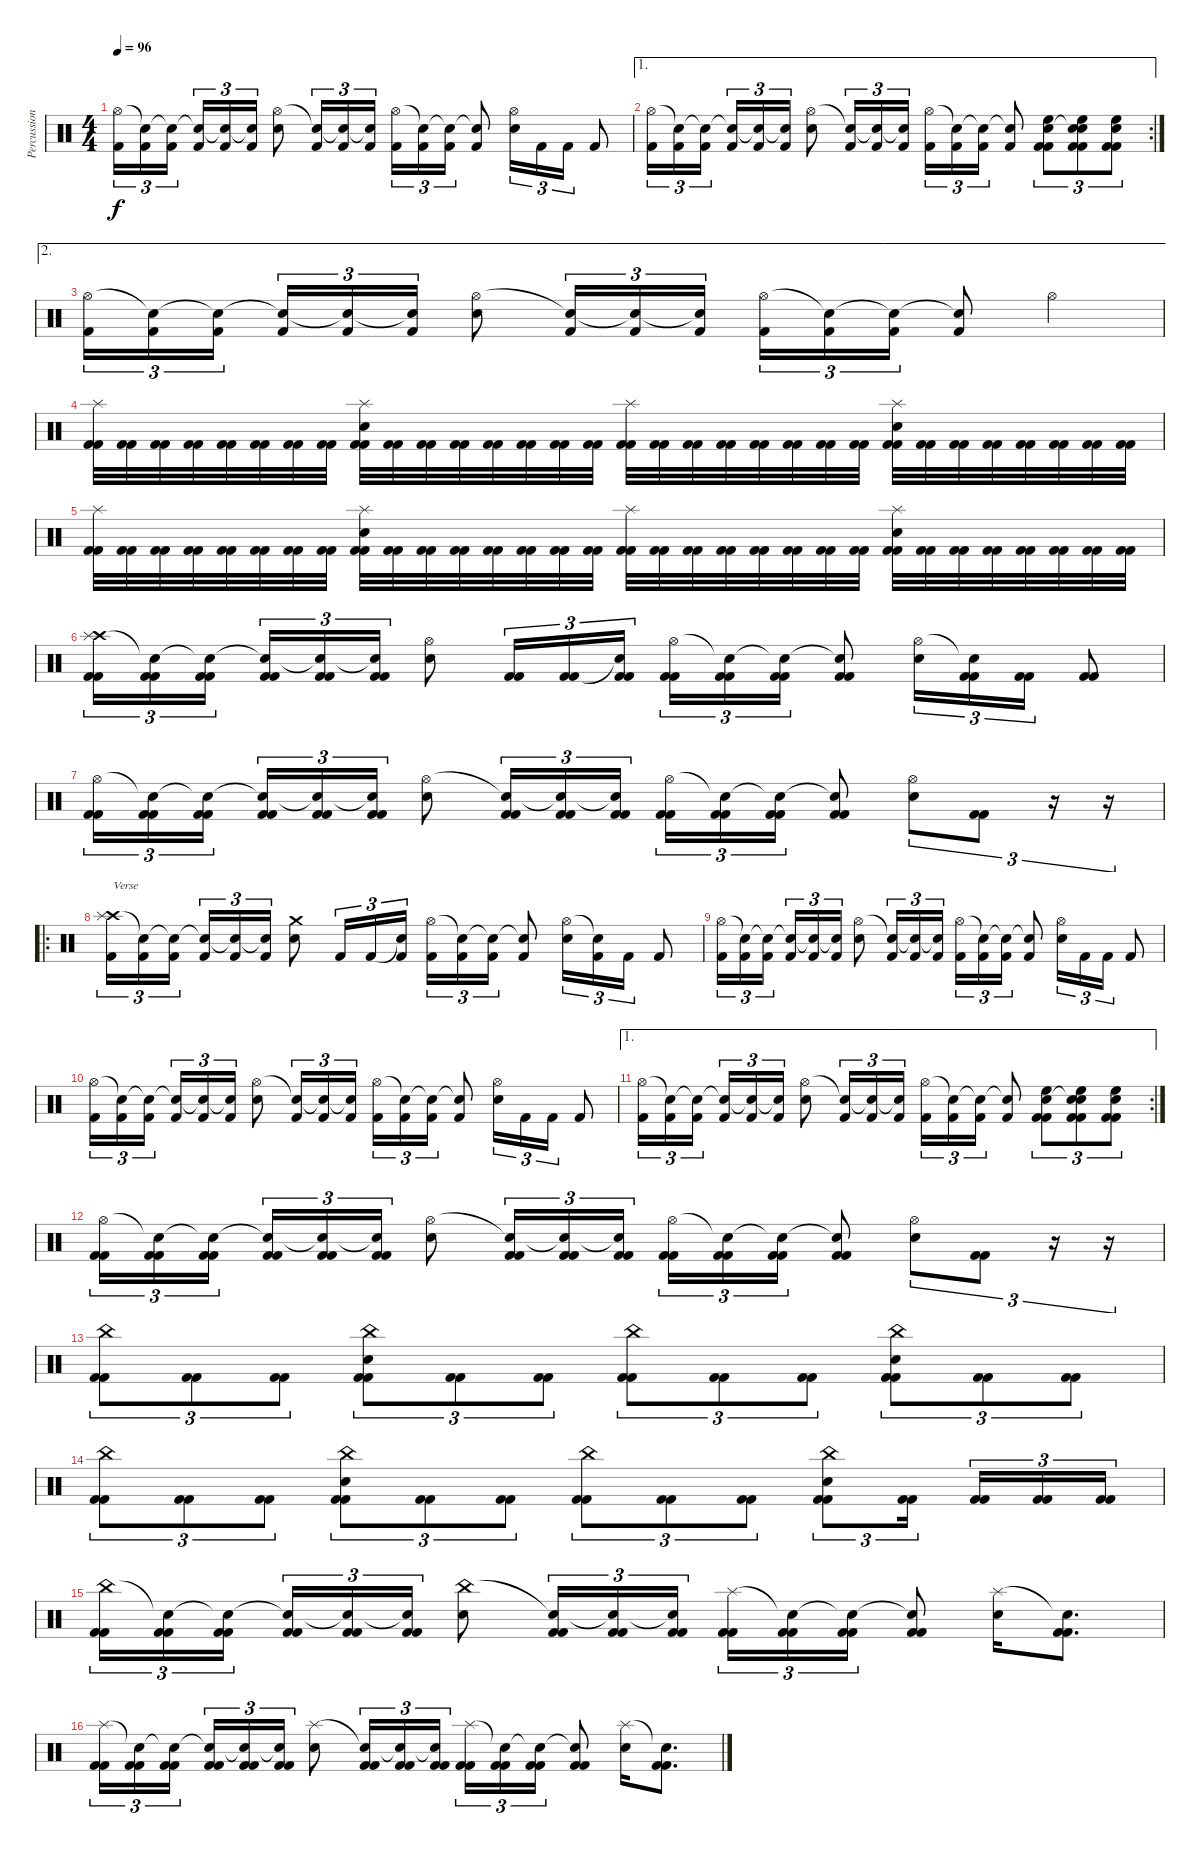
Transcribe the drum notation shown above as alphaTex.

\track ("Percussion" "Percussion") {instrument percussion}
\staff {score}
\articulation defaults
\ts (4 4)
\tempo 96
\clef neutral
\ks c
("Hi-Hat (open)" "Kick (hit) 2").16{tu (3 2) dy f} ("Snare (hit)"{t} "Kick (hit) 2").16{tu (3 2)} ("Snare (hit)"{t} "Kick (hit) 2").16{tu (3 2) beam splitsecondary} ("Snare (hit)"{t} "Kick (hit) 2").16{tu (3 2)} ("Snare (hit)"{t} "Kick (hit) 2").16{tu (3 2)} ("Snare (hit)"{t} "Kick (hit) 2").16{tu (3 2)} ("Hi-Hat (open)" "Snare (hit) 2").8 ("Snare (hit)"{t} "Kick (hit) 2").16{tu (3 2)} ("Snare (hit)"{t} "Kick (hit) 2").16{tu (3 2)} ("Snare (hit)"{t} "Kick (hit) 2").16{tu (3 2)} ("Hi-Hat (open)" "Kick (hit) 2").16{tu (3 2)} ("Snare (hit)"{t} "Kick (hit) 2").16{tu (3 2)} ("Snare (hit)"{t} "Kick (hit) 2").16{tu (3 2)} ("Snare (hit)"{t} "Kick (hit) 2").8 ("Hi-Hat (open)" "Snare (hit) 2").16{tu (3 2)} "Kick (hit) 2".16{tu (3 2)} "Kick (hit) 2".16{tu (3 2)} "Kick (hit) 2".8 |
\ae 1
\rc 2
("Hi-Hat (open)" "Kick (hit) 2").16{tu (3 2)} ("Snare (hit)"{t} "Kick (hit) 2").16{tu (3 2)} ("Snare (hit)"{t} "Kick (hit) 2").16{tu (3 2) beam splitsecondary} ("Snare (hit)"{t} "Kick (hit) 2").16{tu (3 2)} ("Snare (hit)"{t} "Kick (hit) 2").16{tu (3 2)} ("Snare (hit)"{t} "Kick (hit) 2").16{tu (3 2)} ("Hi-Hat (open)" "Snare (hit) 2").8 ("Snare (hit)"{t} "Kick (hit) 2").16{tu (3 2)} ("Snare (hit)"{t} "Kick (hit) 2").16{tu (3 2)} ("Snare (hit)"{t} "Kick (hit) 2").16{tu (3 2)} ("Hi-Hat (open)" "Kick (hit) 2").16{tu (3 2)} ("Snare (hit)"{t} "Kick (hit) 2").16{tu (3 2)} ("Snare (hit)"{t} "Kick (hit) 2").16{tu (3 2)} ("Snare (hit)"{t} "Kick (hit) 2").8 ("Snare (hit) 2" "High Floor Tom (hit)" "Kick (hit) 2" "Kick (hit) 2").8{tu (3 2)} ("Snare (hit)"{t} "Snare (hit) 2" "High Floor Tom (hit)" "Kick (hit) 2" "Kick (hit) 2").8{tu (3 2)} ("Snare (hit) 2" "High Floor Tom (hit)" "Kick (hit) 2" "Kick (hit) 2").8{tu (3 2)} |
\ae 2
("Hi-Hat (open)" "Kick (hit) 2").16{tu (3 2)} ("Snare (hit)"{t} "Kick (hit) 2").16{tu (3 2)} ("Snare (hit)"{t} "Kick (hit) 2").16{tu (3 2) beam splitsecondary} ("Snare (hit)"{t} "Kick (hit) 2").16{tu (3 2)} ("Snare (hit)"{t} "Kick (hit) 2").16{tu (3 2)} ("Snare (hit)"{t} "Kick (hit) 2").16{tu (3 2)} ("Hi-Hat (open)" "Snare (hit) 2").8 ("Snare (hit)"{t} "Kick (hit) 2").16{tu (3 2)} ("Snare (hit)"{t} "Kick (hit) 2").16{tu (3 2)} ("Snare (hit)"{t} "Kick (hit) 2").16{tu (3 2)} ("Hi-Hat (open)" "Kick (hit) 2").16{tu (3 2)} ("Snare (hit)"{t} "Kick (hit) 2").16{tu (3 2)} ("Snare (hit)"{t} "Kick (hit) 2").16{tu (3 2)} ("Snare (hit)"{t} "Kick (hit) 2").8 "Hi-Hat (open)".4 |
("Splash (hit)" "Kick (hit) 2" "Kick (hit) 2").32 ("Kick (hit) 2" "Kick (hit) 2").32 ("Kick (hit) 2" "Kick (hit) 2").32 ("Kick (hit) 2" "Kick (hit) 2").32 ("Kick (hit) 2" "Kick (hit) 2").32 ("Kick (hit) 2" "Kick (hit) 2").32 ("Kick (hit) 2" "Kick (hit) 2").32 ("Kick (hit) 2" "Kick (hit) 2").32 ("Splash (hit)" "Snare (hit) 2" "Kick (hit) 2" "Kick (hit) 2").32 ("Kick (hit) 2" "Kick (hit) 2").32 ("Kick (hit) 2" "Kick (hit) 2").32 ("Kick (hit) 2" "Kick (hit) 2").32 ("Kick (hit) 2" "Kick (hit) 2").32 ("Kick (hit) 2" "Kick (hit) 2").32 ("Kick (hit) 2" "Kick (hit) 2").32 ("Kick (hit) 2" "Kick (hit) 2").32 ("Splash (hit)" "Kick (hit) 2" "Kick (hit) 2").32 ("Kick (hit) 2" "Kick (hit) 2").32 ("Kick (hit) 2" "Kick (hit) 2").32 ("Kick (hit) 2" "Kick (hit) 2").32 ("Kick (hit) 2" "Kick (hit) 2").32 ("Kick (hit) 2" "Kick (hit) 2").32 ("Kick (hit) 2" "Kick (hit) 2").32 ("Kick (hit) 2" "Kick (hit) 2").32 ("Splash (hit)" "Snare (hit) 2" "Kick (hit) 2" "Kick (hit) 2").32 ("Kick (hit) 2" "Kick (hit) 2").32 ("Kick (hit) 2" "Kick (hit) 2").32 ("Kick (hit) 2" "Kick (hit) 2").32 ("Kick (hit) 2" "Kick (hit) 2").32 ("Kick (hit) 2" "Kick (hit) 2").32 ("Kick (hit) 2" "Kick (hit) 2").32 ("Kick (hit) 2" "Kick (hit) 2").32 |
("Splash (hit)" "Kick (hit) 2" "Kick (hit) 2").32 ("Kick (hit) 2" "Kick (hit) 2").32 ("Kick (hit) 2" "Kick (hit) 2").32 ("Kick (hit) 2" "Kick (hit) 2").32 ("Kick (hit) 2" "Kick (hit) 2").32 ("Kick (hit) 2" "Kick (hit) 2").32 ("Kick (hit) 2" "Kick (hit) 2").32 ("Kick (hit) 2" "Kick (hit) 2").32 ("Splash (hit)" "Snare (hit) 2" "Kick (hit) 2" "Kick (hit) 2").32 ("Kick (hit) 2" "Kick (hit) 2").32 ("Kick (hit) 2" "Kick (hit) 2").32 ("Kick (hit) 2" "Kick (hit) 2").32 ("Kick (hit) 2" "Kick (hit) 2").32 ("Kick (hit) 2" "Kick (hit) 2").32 ("Kick (hit) 2" "Kick (hit) 2").32 ("Kick (hit) 2" "Kick (hit) 2").32 ("Splash (hit)" "Kick (hit) 2" "Kick (hit) 2").32 ("Kick (hit) 2" "Kick (hit) 2").32 ("Kick (hit) 2" "Kick (hit) 2").32 ("Kick (hit) 2" "Kick (hit) 2").32 ("Kick (hit) 2" "Kick (hit) 2").32 ("Kick (hit) 2" "Kick (hit) 2").32 ("Kick (hit) 2" "Kick (hit) 2").32 ("Kick (hit) 2" "Kick (hit) 2").32 ("Splash (hit)" "Snare (hit) 2" "Kick (hit) 2" "Kick (hit) 2").32 ("Kick (hit) 2" "Kick (hit) 2").32 ("Kick (hit) 2" "Kick (hit) 2").32 ("Kick (hit) 2" "Kick (hit) 2").32 ("Kick (hit) 2" "Kick (hit) 2").32 ("Kick (hit) 2" "Kick (hit) 2").32 ("Kick (hit) 2" "Kick (hit) 2").32 ("Kick (hit) 2" "Kick (hit) 2").32 |
("Crash high (hit)" "Splash (hit)" "Kick (hit) 2" "Kick (hit) 2").16{tu (3 2)} ("Snare (hit)"{t} "Kick (hit) 2" "Kick (hit) 2").16{tu (3 2)} ("Snare (hit)"{t} "Kick (hit) 2" "Kick (hit) 2").16{tu (3 2) beam splitsecondary} ("Snare (hit)"{t} "Kick (hit) 2" "Kick (hit) 2").16{tu (3 2)} ("Snare (hit)"{t} "Kick (hit) 2" "Kick (hit) 2").16{tu (3 2)} ("Snare (hit)"{t} "Kick (hit) 2" "Kick (hit) 2").16{tu (3 2)} ("Hi-Hat (open)" "Snare (hit) 2").8 ("Kick (hit) 2" "Kick (hit) 2").16{tu (3 2)} ("Kick (hit) 2" "Kick (hit) 2").16{tu (3 2)} ("Snare (hit)"{t} "Kick (hit) 2" "Kick (hit) 2").16{tu (3 2)} ("Hi-Hat (open)" "Kick (hit) 2" "Kick (hit) 2").16{tu (3 2)} ("Snare (hit)"{t} "Kick (hit) 2" "Kick (hit) 2").16{tu (3 2)} ("Snare (hit)"{t} "Kick (hit) 2" "Kick (hit) 2").16{tu (3 2)} ("Snare (hit)"{t} "Kick (hit) 2" "Kick (hit) 2").8 ("Hi-Hat (open)" "Snare (hit) 2").16{tu (3 2)} ("Snare (hit)"{t} "Kick (hit) 2" "Kick (hit) 2").16{tu (3 2)} ("Kick (hit) 2" "Kick (hit) 2").16{tu (3 2)} ("Kick (hit) 2" "Kick (hit) 2").8 |
("Hi-Hat (open)" "Kick (hit) 2" "Kick (hit) 2").16{tu (3 2)} ("Snare (hit)"{t} "Kick (hit) 2" "Kick (hit) 2").16{tu (3 2)} ("Snare (hit)"{t} "Kick (hit) 2" "Kick (hit) 2").16{tu (3 2) beam splitsecondary} ("Snare (hit)"{t} "Kick (hit) 2" "Kick (hit) 2").16{tu (3 2)} ("Snare (hit)"{t} "Kick (hit) 2" "Kick (hit) 2").16{tu (3 2)} ("Snare (hit)"{t} "Kick (hit) 2" "Kick (hit) 2").16{tu (3 2)} ("Hi-Hat (open)" "Snare (hit) 2").8 ("Snare (hit)"{t} "Kick (hit) 2" "Kick (hit) 2").16{tu (3 2)} ("Snare (hit)"{t} "Kick (hit) 2" "Kick (hit) 2").16{tu (3 2)} ("Snare (hit)"{t} "Kick (hit) 2" "Kick (hit) 2").16{tu (3 2)} ("Hi-Hat (open)" "Kick (hit) 2" "Kick (hit) 2").16{tu (3 2)} ("Snare (hit)"{t} "Kick (hit) 2" "Kick (hit) 2").16{tu (3 2)} ("Snare (hit)"{t} "Kick (hit) 2" "Kick (hit) 2").16{tu (3 2)} ("Snare (hit)"{t} "Kick (hit) 2" "Kick (hit) 2").8 ("Hi-Hat (open)" "Snare (hit) 2").8{tu (3 2)} ("Kick (hit) 2" "Kick (hit) 2").8{tu (3 2)} r.16{tu (3 2)} r.16{tu (3 2)} |
\ro
("Crash high (hit)" "Splash (hit)" "Kick (hit) 2").16{tu (3 2) txt "Verse"} ("Snare (hit)"{t} "Kick (hit) 2").16{tu (3 2)} ("Snare (hit)"{t} "Kick (hit) 2").16{tu (3 2) beam splitsecondary} ("Snare (hit)"{t} "Kick (hit) 2").16{tu (3 2)} ("Snare (hit)"{t} "Kick (hit) 2").16{tu (3 2)} ("Snare (hit)"{t} "Kick (hit) 2").16{tu (3 2)} ("Crash medium (hit)" "Snare (hit) 2").8 "Kick (hit) 2".16{tu (3 2)} "Kick (hit) 2".16{tu (3 2)} ("Snare (hit)"{t} "Kick (hit) 2").16{tu (3 2)} ("Hi-Hat (open)" "Kick (hit) 2").16{tu (3 2)} ("Snare (hit)"{t} "Kick (hit) 2").16{tu (3 2)} ("Snare (hit)"{t} "Kick (hit) 2").16{tu (3 2)} ("Snare (hit)"{t} "Kick (hit) 2").8 ("Hi-Hat (open)" "Snare (hit) 2").16{tu (3 2)} ("Snare (hit)"{t} "Kick (hit) 2").16{tu (3 2)} "Kick (hit) 2".16{tu (3 2)} "Kick (hit) 2".8 |
("Hi-Hat (open)" "Kick (hit) 2").16{tu (3 2)} ("Snare (hit)"{t} "Kick (hit) 2").16{tu (3 2)} ("Snare (hit)"{t} "Kick (hit) 2").16{tu (3 2) beam splitsecondary} ("Snare (hit)"{t} "Kick (hit) 2").16{tu (3 2)} ("Snare (hit)"{t} "Kick (hit) 2").16{tu (3 2)} ("Snare (hit)"{t} "Kick (hit) 2").16{tu (3 2)} ("Hi-Hat (open)" "Snare (hit) 2").8 ("Snare (hit)"{t} "Kick (hit) 2").16{tu (3 2)} ("Snare (hit)"{t} "Kick (hit) 2").16{tu (3 2)} ("Snare (hit)"{t} "Kick (hit) 2").16{tu (3 2)} ("Hi-Hat (open)" "Kick (hit) 2").16{tu (3 2)} ("Snare (hit)"{t} "Kick (hit) 2").16{tu (3 2)} ("Snare (hit)"{t} "Kick (hit) 2").16{tu (3 2)} ("Snare (hit)"{t} "Kick (hit) 2").8 ("Hi-Hat (open)" "Snare (hit) 2").16{tu (3 2)} "Kick (hit) 2".16{tu (3 2)} "Kick (hit) 2".16{tu (3 2)} "Kick (hit) 2".8 |
("Hi-Hat (open)" "Kick (hit) 2").16{tu (3 2)} ("Snare (hit)"{t} "Kick (hit) 2").16{tu (3 2)} ("Snare (hit)"{t} "Kick (hit) 2").16{tu (3 2) beam splitsecondary} ("Snare (hit)"{t} "Kick (hit) 2").16{tu (3 2)} ("Snare (hit)"{t} "Kick (hit) 2").16{tu (3 2)} ("Snare (hit)"{t} "Kick (hit) 2").16{tu (3 2)} ("Hi-Hat (open)" "Snare (hit) 2").8 ("Snare (hit)"{t} "Kick (hit) 2").16{tu (3 2)} ("Snare (hit)"{t} "Kick (hit) 2").16{tu (3 2)} ("Snare (hit)"{t} "Kick (hit) 2").16{tu (3 2)} ("Hi-Hat (open)" "Kick (hit) 2").16{tu (3 2)} ("Snare (hit)"{t} "Kick (hit) 2").16{tu (3 2)} ("Snare (hit)"{t} "Kick (hit) 2").16{tu (3 2)} ("Snare (hit)"{t} "Kick (hit) 2").8 ("Hi-Hat (open)" "Snare (hit) 2").16{tu (3 2)} "Kick (hit) 2".16{tu (3 2)} "Kick (hit) 2".16{tu (3 2)} "Kick (hit) 2".8 |
\ae 1
\rc 2
("Hi-Hat (open)" "Kick (hit) 2").16{tu (3 2)} ("Snare (hit)"{t} "Kick (hit) 2").16{tu (3 2)} ("Snare (hit)"{t} "Kick (hit) 2").16{tu (3 2) beam splitsecondary} ("Snare (hit)"{t} "Kick (hit) 2").16{tu (3 2)} ("Snare (hit)"{t} "Kick (hit) 2").16{tu (3 2)} ("Snare (hit)"{t} "Kick (hit) 2").16{tu (3 2)} ("Hi-Hat (open)" "Snare (hit) 2").8 ("Snare (hit)"{t} "Kick (hit) 2").16{tu (3 2)} ("Snare (hit)"{t} "Kick (hit) 2").16{tu (3 2)} ("Snare (hit)"{t} "Kick (hit) 2").16{tu (3 2)} ("Hi-Hat (open)" "Kick (hit) 2").16{tu (3 2)} ("Snare (hit)"{t} "Kick (hit) 2").16{tu (3 2)} ("Snare (hit)"{t} "Kick (hit) 2").16{tu (3 2)} ("Snare (hit)"{t} "Kick (hit) 2").8 ("Snare (hit) 2" "High Floor Tom (hit)" "Kick (hit) 2" "Kick (hit) 2").8{tu (3 2)} ("Snare (hit)"{t} "Snare (hit) 2" "High Floor Tom (hit)" "Kick (hit) 2" "Kick (hit) 2").8{tu (3 2)} ("Snare (hit) 2" "High Floor Tom (hit)" "Kick (hit) 2" "Kick (hit) 2").8{tu (3 2)} |
("Hi-Hat (open)" "Kick (hit) 2" "Kick (hit) 2").16{tu (3 2)} ("Snare (hit)"{t} "Kick (hit) 2" "Kick (hit) 2").16{tu (3 2)} ("Snare (hit)"{t} "Kick (hit) 2" "Kick (hit) 2").16{tu (3 2) beam splitsecondary} ("Snare (hit)"{t} "Kick (hit) 2" "Kick (hit) 2").16{tu (3 2)} ("Snare (hit)"{t} "Kick (hit) 2" "Kick (hit) 2").16{tu (3 2)} ("Snare (hit)"{t} "Kick (hit) 2" "Kick (hit) 2").16{tu (3 2)} ("Hi-Hat (open)" "Snare (hit) 2").8 ("Snare (hit)"{t} "Kick (hit) 2" "Kick (hit) 2").16{tu (3 2)} ("Snare (hit)"{t} "Kick (hit) 2" "Kick (hit) 2").16{tu (3 2)} ("Snare (hit)"{t} "Kick (hit) 2" "Kick (hit) 2").16{tu (3 2)} ("Hi-Hat (open)" "Kick (hit) 2" "Kick (hit) 2").16{tu (3 2)} ("Snare (hit)"{t} "Kick (hit) 2" "Kick (hit) 2").16{tu (3 2)} ("Snare (hit)"{t} "Kick (hit) 2" "Kick (hit) 2").16{tu (3 2)} ("Snare (hit)"{t} "Kick (hit) 2" "Kick (hit) 2").8 ("Hi-Hat (open)" "Snare (hit) 2").8{tu (3 2)} ("Kick (hit) 2" "Kick (hit) 2").8{tu (3 2)} r.16{tu (3 2)} r.16{tu (3 2)} |
("China (hit)" "Kick (hit) 2" "Kick (hit) 2").8{tu (3 2)} ("Kick (hit) 2" "Kick (hit) 2").8{tu (3 2)} ("Kick (hit) 2" "Kick (hit) 2").8{tu (3 2)} ("China (hit)" "Snare (hit) 2" "Kick (hit) 2" "Kick (hit) 2").8{tu (3 2)} ("Kick (hit) 2" "Kick (hit) 2").8{tu (3 2)} ("Kick (hit) 2" "Kick (hit) 2").8{tu (3 2)} ("China (hit)" "Kick (hit) 2" "Kick (hit) 2").8{tu (3 2)} ("Kick (hit) 2" "Kick (hit) 2").8{tu (3 2)} ("Kick (hit) 2" "Kick (hit) 2").8{tu (3 2)} ("China (hit)" "Snare (hit) 2" "Kick (hit) 2" "Kick (hit) 2").8{tu (3 2)} ("Kick (hit) 2" "Kick (hit) 2").8{tu (3 2)} ("Kick (hit) 2" "Kick (hit) 2").8{tu (3 2)} |
("China (hit)" "Kick (hit) 2" "Kick (hit) 2").8{tu (3 2)} ("Kick (hit) 2" "Kick (hit) 2").8{tu (3 2)} ("Kick (hit) 2" "Kick (hit) 2").8{tu (3 2)} ("China (hit)" "Snare (hit) 2" "Kick (hit) 2" "Kick (hit) 2").8{tu (3 2)} ("Kick (hit) 2" "Kick (hit) 2").8{tu (3 2)} ("Kick (hit) 2" "Kick (hit) 2").8{tu (3 2)} ("China (hit)" "Kick (hit) 2" "Kick (hit) 2").8{tu (3 2)} ("Kick (hit) 2" "Kick (hit) 2").8{tu (3 2)} ("Kick (hit) 2" "Kick (hit) 2").8{tu (3 2)} ("China (hit)" "Snare (hit) 2" "Kick (hit) 2" "Kick (hit) 2").8{tu (3 2)} ("Kick (hit) 2" "Kick (hit) 2").16{tu (3 2) beam splitsecondary} ("Kick (hit) 2" "Kick (hit) 2").16{tu (3 2)} ("Kick (hit) 2" "Kick (hit) 2").16{tu (3 2)} ("Kick (hit) 2" "Kick (hit) 2").16{tu (3 2)} |
("China (hit)" "Kick (hit) 2" "Kick (hit) 2").16{tu (3 2)} ("Snare (hit)"{t} "Kick (hit) 2" "Kick (hit) 2").16{tu (3 2)} ("Snare (hit)"{t} "Kick (hit) 2" "Kick (hit) 2").16{tu (3 2) beam splitsecondary} ("Snare (hit)"{t} "Kick (hit) 2" "Kick (hit) 2").16{tu (3 2)} ("Snare (hit)"{t} "Kick (hit) 2" "Kick (hit) 2").16{tu (3 2)} ("Snare (hit)"{t} "Kick (hit) 2" "Kick (hit) 2").16{tu (3 2)} ("China (hit)" "Snare (hit) 2").8 ("Snare (hit)"{t} "Kick (hit) 2" "Kick (hit) 2").16{tu (3 2)} ("Snare (hit)"{t} "Kick (hit) 2" "Kick (hit) 2").16{tu (3 2)} ("Snare (hit)"{t} "Kick (hit) 2" "Kick (hit) 2").16{tu (3 2)} ("Splash (hit)" "Kick (hit) 2" "Kick (hit) 2").16{tu (3 2)} ("Snare (hit)"{t} "Kick (hit) 2" "Kick (hit) 2").16{tu (3 2)} ("Snare (hit)"{t} "Kick (hit) 2" "Kick (hit) 2").16{tu (3 2)} ("Snare (hit)"{t} "Kick (hit) 2" "Kick (hit) 2").8 ("Splash (hit)" "Snare (hit) 2").16 ("Snare (hit)"{t} "Kick (hit) 2" "Kick (hit) 2").8{d} |
("Splash (hit)" "Kick (hit) 2" "Kick (hit) 2").16{tu (3 2)} ("Snare (hit)"{t} "Kick (hit) 2" "Kick (hit) 2").16{tu (3 2)} ("Snare (hit)"{t} "Kick (hit) 2" "Kick (hit) 2").16{tu (3 2) beam splitsecondary} ("Snare (hit)"{t} "Kick (hit) 2" "Kick (hit) 2").16{tu (3 2)} ("Snare (hit)"{t} "Kick (hit) 2" "Kick (hit) 2").16{tu (3 2)} ("Snare (hit)"{t} "Kick (hit) 2" "Kick (hit) 2").16{tu (3 2)} ("Splash (hit)" "Snare (hit) 2").8 ("Snare (hit)"{t} "Kick (hit) 2" "Kick (hit) 2").16{tu (3 2)} ("Snare (hit)"{t} "Kick (hit) 2" "Kick (hit) 2").16{tu (3 2)} ("Snare (hit)"{t} "Kick (hit) 2" "Kick (hit) 2").16{tu (3 2)} ("Splash (hit)" "Kick (hit) 2" "Kick (hit) 2").16{tu (3 2)} ("Snare (hit)"{t} "Kick (hit) 2" "Kick (hit) 2").16{tu (3 2)} ("Snare (hit)"{t} "Kick (hit) 2" "Kick (hit) 2").16{tu (3 2)} ("Snare (hit)"{t} "Kick (hit) 2" "Kick (hit) 2").8 ("Splash (hit)" "Snare (hit) 2").16 ("Snare (hit)"{t} "Kick (hit) 2" "Kick (hit) 2").8{d}
